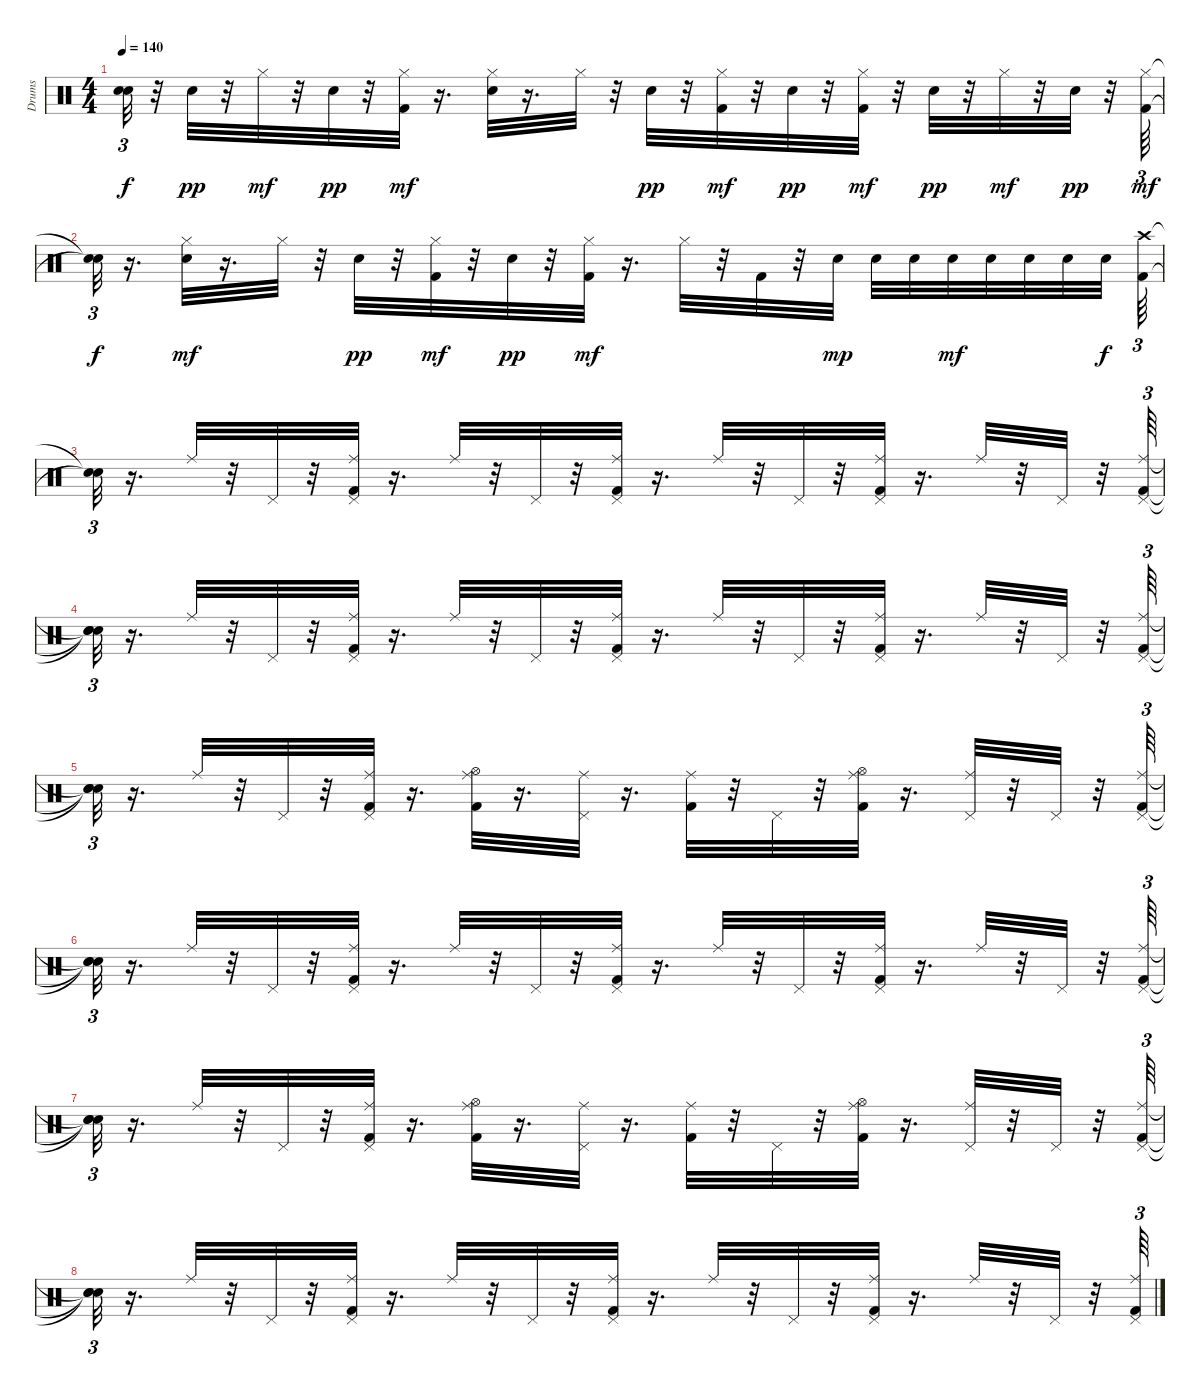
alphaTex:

\track ("Drums" "Drums") {instrument percussion}
\staff {score}
\articulation defaults
\ts (4 4)
\tempo 140
\clef neutral
\ks c
("Snare (hit)"{t} "Snare (hit)"{t}).32{tu (3 2) dy f} r.32 "Snare (hit) 2".32{dy pp} r.32 "Hi-Hat (closed)".32{dy mf} r.32 "Snare (hit) 2".32{dy pp} r.32 ("Kick (hit) 2" "Hi-Hat (closed)").32{dy mf} r.16{d} ("Snare (hit) 2" "Hi-Hat (closed)").32 r.16{d} "Hi-Hat (closed)".32 r.32 "Snare (hit) 2".32{dy pp} r.32 ("Hi-Hat (closed)" "Kick (hit) 2").32{dy mf} r.32 "Snare (hit) 2".32{dy pp} r.32 ("Kick (hit) 2" "Hi-Hat (closed)").32{dy mf} r.32 "Snare (hit) 2".32{dy pp} r.32 "Hi-Hat (closed)".32{dy mf} r.32 "Snare (hit) 2".32{dy pp} r.32 ("Hi-Hat (closed)" "Kick (hit) 2").64{tu (3 2) dy mf} |
("Snare (hit)"{t} "Snare (hit)"{t}).32{tu (3 2) dy f} r.16{d} ("Snare (hit) 2" "Hi-Hat (closed)").32{dy mf} r.16{d} "Hi-Hat (closed)".32 r.32 "Snare (hit) 2".32{dy pp} r.32 ("Hi-Hat (closed)" "Kick (hit) 2").32{dy mf} r.32 "Snare (hit) 2".32{dy pp} r.32 ("Hi-Hat (closed)" "Kick (hit) 2").32{dy mf} r.16{d} "Hi-Hat (closed)".32 r.32 "Kick (hit) 2".32 r.32 "Snare (hit) 2".32{dy mp} "Snare (hit) 2".32 "Snare (hit) 2".32 "Snare (hit) 2".32{dy mf} "Snare (hit) 2".32 "Snare (hit) 2".32 "Snare (hit) 2".32 "Snare (hit) 2".32{dy f beam splitsecondary} ("Crash high (hit)" "Kick (hit) 2").64{tu (3 2)} |
("Snare (hit)"{t} "Snare (hit)"{t}).32{tu (3 2)} r.16{d} "Ride (middle)".32 r.32 "Pedal Hi-Hat (hit)".32 r.32 ("Pedal Hi-Hat (hit)" "Ride (middle)" "Kick (hit) 2").32 r.16{d} "Ride (middle)".32 r.32 "Pedal Hi-Hat (hit)".32 r.32 ("Pedal Hi-Hat (hit)" "Ride (middle)" "Kick (hit) 2").32 r.16{d} "Ride (middle)".32 r.32 "Pedal Hi-Hat (hit)".32 r.32 ("Pedal Hi-Hat (hit)" "Ride (middle)" "Kick (hit) 2").32 r.16{d} "Ride (middle)".32 r.32 "Pedal Hi-Hat (hit)".32 r.32 ("Pedal Hi-Hat (hit)" "Ride (middle)" "Kick (hit) 2").64{tu (3 2)} |
("Snare (hit)"{t} "Snare (hit)"{t} "Snare (hit)"{t}).32{tu (3 2)} r.16{d} "Ride (middle)".32 r.32 "Pedal Hi-Hat (hit)".32 r.32 ("Pedal Hi-Hat (hit)" "Ride (middle)" "Kick (hit) 2").32 r.16{d} "Ride (middle)".32 r.32 "Pedal Hi-Hat (hit)".32 r.32 ("Pedal Hi-Hat (hit)" "Ride (middle)" "Kick (hit) 2").32 r.16{d} "Ride (middle)".32 r.32 "Pedal Hi-Hat (hit)".32 r.32 ("Pedal Hi-Hat (hit)" "Ride (middle)" "Kick (hit) 2").32 r.16{d} "Ride (middle)".32 r.32 "Pedal Hi-Hat (hit)".32 r.32 ("Ride (middle)" "Pedal Hi-Hat (hit)" "Kick (hit) 2").64{tu (3 2)} |
("Snare (hit)"{t} "Snare (hit)"{t} "Snare (hit)"{t}).32{tu (3 2)} r.16{d} "Ride (middle)".32 r.32 "Pedal Hi-Hat (hit)".32 r.32 ("Ride (middle)" "Pedal Hi-Hat (hit)" "Kick (hit) 2").32 r.16{d} ("Hi-Hat (open)" "Ride (middle)" "Kick (hit) 2").32 r.16{d} ("Pedal Hi-Hat (hit)" "Ride (middle)").32 r.16{d} ("Ride (middle)" "Kick (hit) 2").32 r.32 "Pedal Hi-Hat (hit)".32 r.32 ("Hi-Hat (open)" "Kick (hit) 2" "Ride (middle)").32 r.16{d} ("Pedal Hi-Hat (hit)" "Ride (middle)").32 r.32 "Pedal Hi-Hat (hit)".32 r.32 ("Pedal Hi-Hat (hit)" "Ride (middle)" "Kick (hit) 2").64{tu (3 2)} |
("Snare (hit)"{t} "Snare (hit)"{t} "Snare (hit)"{t}).32{tu (3 2)} r.16{d} "Ride (middle)".32 r.32 "Pedal Hi-Hat (hit)".32 r.32 ("Pedal Hi-Hat (hit)" "Ride (middle)" "Kick (hit) 2").32 r.16{d} "Ride (middle)".32 r.32 "Pedal Hi-Hat (hit)".32 r.32 ("Pedal Hi-Hat (hit)" "Ride (middle)" "Kick (hit) 2").32 r.16{d} "Ride (middle)".32 r.32 "Pedal Hi-Hat (hit)".32 r.32 ("Pedal Hi-Hat (hit)" "Ride (middle)" "Kick (hit) 2").32 r.16{d} "Ride (middle)".32 r.32 "Pedal Hi-Hat (hit)".32 r.32 ("Ride (middle)" "Pedal Hi-Hat (hit)" "Kick (hit) 2").64{tu (3 2)} |
("Snare (hit)"{t} "Snare (hit)"{t} "Snare (hit)"{t}).32{tu (3 2)} r.16{d} "Ride (middle)".32 r.32 "Pedal Hi-Hat (hit)".32 r.32 ("Ride (middle)" "Pedal Hi-Hat (hit)" "Kick (hit) 2").32 r.16{d} ("Hi-Hat (open)" "Ride (middle)" "Kick (hit) 2").32 r.16{d} ("Pedal Hi-Hat (hit)" "Ride (middle)").32 r.16{d} ("Ride (middle)" "Kick (hit) 2").32 r.32 "Pedal Hi-Hat (hit)".32 r.32 ("Hi-Hat (open)" "Kick (hit) 2" "Ride (middle)").32 r.16{d} ("Pedal Hi-Hat (hit)" "Ride (middle)").32 r.32 "Pedal Hi-Hat (hit)".32 r.32 ("Pedal Hi-Hat (hit)" "Ride (middle)" "Kick (hit) 2").64{tu (3 2)} |
("Snare (hit)"{t} "Snare (hit)"{t} "Snare (hit)"{t}).32{tu (3 2)} r.16{d} "Ride (middle)".32 r.32 "Pedal Hi-Hat (hit)".32 r.32 ("Pedal Hi-Hat (hit)" "Ride (middle)" "Kick (hit) 2").32 r.16{d} "Ride (middle)".32 r.32 "Pedal Hi-Hat (hit)".32 r.32 ("Pedal Hi-Hat (hit)" "Ride (middle)" "Kick (hit) 2").32 r.16{d} "Ride (middle)".32 r.32 "Pedal Hi-Hat (hit)".32 r.32 ("Ride (middle)" "Pedal Hi-Hat (hit)" "Kick (hit) 2").32 r.16{d} "Ride (middle)".32 r.32 "Pedal Hi-Hat (hit)".32 r.32 ("Ride (middle)" "Pedal Hi-Hat (hit)" "Kick (hit) 2").64{tu (3 2)}
